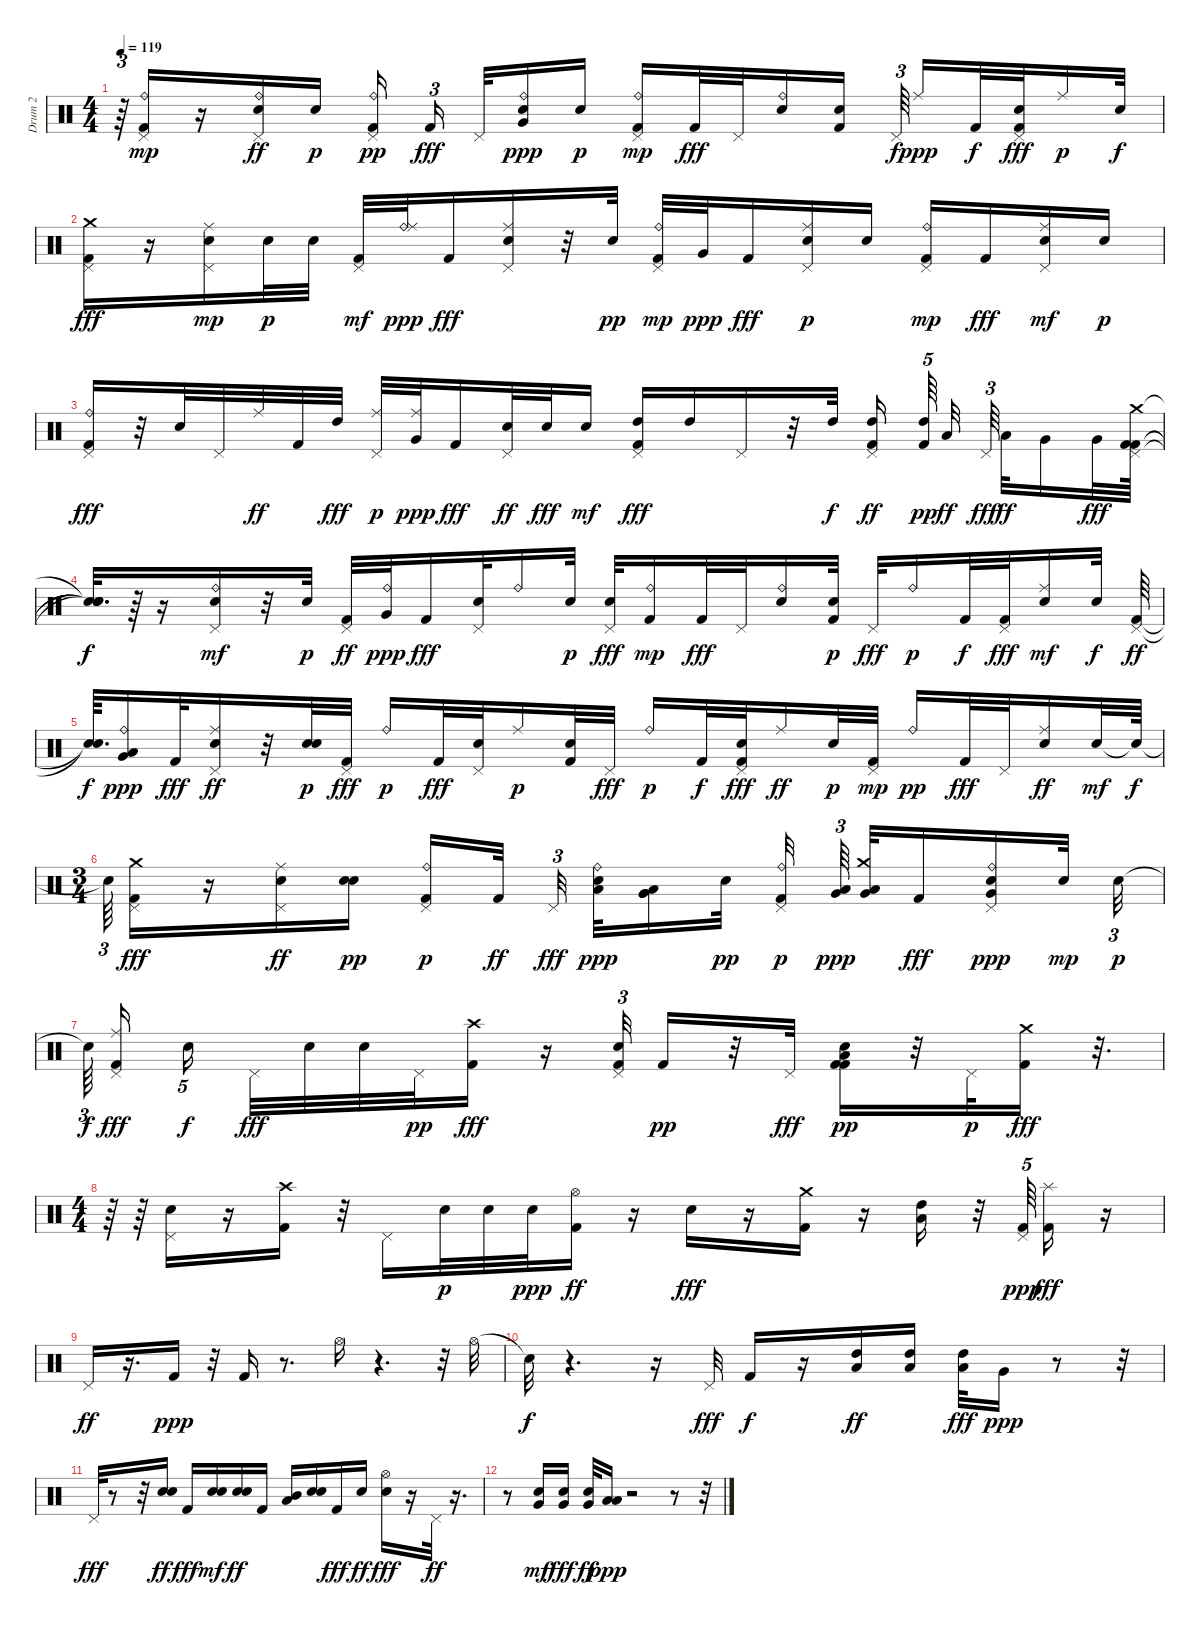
\track ("Drum 2                          " "Drum 2    ") {instrument percussion}
\staff {score}
\articulation defaults
\ts (4 4)
\tempo 119
\clef neutral
\ks c
r.64{tu (3 2) dy f} ("Pedal Hi-Hat (hit)" "Kick (hit) 2" "Ride (bell)").16{dy mp} r.16 ("Pedal Hi-Hat (hit)" "Snare (hit) 2" "Ride (bell)").16{dy ff} "Snare (hit) 2".16{dy p} ("Pedal Hi-Hat (hit)" "Kick (hit) 2" "Ride (bell)").16{dy pp beam splitsecondary} "Kick (hit) 2".16{tu (3 2) dy fff beam splitsecondary} "Pedal Hi-Hat (hit)".32 ("Snare (hit) 2" "Ride (bell)" "Very Low Tom (hit)").16{dy ppp} "Snare (hit) 2".16{dy p} ("Pedal Hi-Hat (hit)" "Kick (hit) 2" "Ride (bell)").16{dy mp} "Kick (hit) 2".32{dy fff} "Pedal Hi-Hat (hit)".32 ("Snare (hit) 2" "Ride (bell)").16 ("Snare (hit) 2" "Kick (hit) 2").16 "Pedal Hi-Hat (hit)".64{tu (3 2) dy f beam splitsecondary} "Ride (middle)".16{dy ppp} "Kick (hit) 2".32{dy f} ("Pedal Hi-Hat (hit)" "Snare (hit) 2" "Kick (hit) 2").32{dy fff} "Ride (middle)".16{dy p} "Snare (hit) 2".32{dy f} |
("Kick (hit) 2" "Crash medium (hit)" "Pedal Hi-Hat (hit)").16{dy fff} r.16 ("Snare (hit) 2" "Pedal Hi-Hat (hit)" "Ride (middle)").16{dy mp} "Snare (hit) 2".32{dy p} "Snare (hit) 2".32 ("Pedal Hi-Hat (hit)" "Kick (hit) 2").32{dy mf} ("Ride (bell)" "Ride (middle)").32{dy ppp} "Kick (hit) 2".16{dy fff} ("Pedal Hi-Hat (hit)" "Ride (middle)" "Snare (hit) 2").16 r.32 "Snare (hit) 2".32{dy pp} ("Pedal Hi-Hat (hit)" "Kick (hit) 2" "Ride (bell)").32{dy mp} "Very Low Tom (hit)".32{dy ppp} "Kick (hit) 2".16{dy fff} ("Pedal Hi-Hat (hit)" "Snare (hit) 2" "Ride (middle)").16{dy p} "Snare (hit) 2".16 ("Pedal Hi-Hat (hit)" "Kick (hit) 2" "Ride (bell)").16{dy mp} "Kick (hit) 2".16{dy fff} ("Pedal Hi-Hat (hit)" "Snare (hit) 2" "Ride (middle)").16{dy mf} "Snare (hit) 2".16{dy p} |
("Pedal Hi-Hat (hit)" "Ride (bell)" "Kick (hit) 2").16{dy fff} r.32 "Snare (hit) 2".32 "Pedal Hi-Hat (hit)".32 "Ride (middle)".32{dy ff} "Kick (hit) 2".32 "High Tom (hit)".32{dy fff} ("Pedal Hi-Hat (hit)" "Ride (middle)").32{dy p} ("Ride (middle)" "Very Low Tom (hit)").32{dy ppp} "Kick (hit) 2".16{dy fff} ("Pedal Hi-Hat (hit)" "Electric Snare (hit)").32{dy ff} "Snare (hit) 2".32{dy fff} "Snare (hit) 2".16{dy mf} ("Pedal Hi-Hat (hit)" "High Tom (hit)" "Kick (hit) 2").16{dy fff} "High Tom (hit)".16 "Pedal Hi-Hat (hit)".16 r.32 "High Tom (hit)".32{dy f} ("Pedal Hi-Hat (hit)" "High Tom (hit)" "Kick (hit) 2").16{dy ff beam splitsecondary} ("High Tom (hit)" "Kick (hit) 2").64{tu (5 4) dy pp beam splitsecondary} "Low Tom (hit)".32{dy ff beam splitsecondary} "Pedal Hi-Hat (hit)".64{tu (3 2) dy fff beam splitsecondary} "Low Tom (hit)".32{dy ff} "Very Low Tom (hit)".16 "Very Low Tom (hit)".32{dy fff} ("Kick (hit) 2" "Crash medium (hit)" "Kick (hit) 2" "Pedal Hi-Hat (hit)").64 |
("Snare (hit)"{t} "Snare (hit)"{t} "Snare (hit)"{t} "Snare (hit)"{t}).32{d dy f} r.64 r.16 ("Pedal Hi-Hat (hit)" "Electric Snare (hit)" "Ride (bell)").16{dy mf} r.32 "Snare (hit) 2".32{dy p} ("Kick (hit) 2" "Pedal Hi-Hat (hit)").32{dy ff} ("Ride (bell)" "Very Low Tom (hit)").32{dy ppp} "Kick (hit) 2".16{dy fff} ("Pedal Hi-Hat (hit)" "Snare (hit) 2").32 "Ride (bell)".16 "Snare (hit) 2".32{dy p} ("Snare (hit) 2" "Pedal Hi-Hat (hit)").32{dy fff} ("Ride (bell)" "Kick (hit) 2").16{dy mp} "Kick (hit) 2".32{dy fff} "Pedal Hi-Hat (hit)".32 ("Electric Snare (hit)" "Ride (bell)").16 ("Kick (hit) 2" "Snare (hit) 2").32{dy p} "Pedal Hi-Hat (hit)".32{dy fff} "Ride (bell)".16{dy p} "Kick (hit) 2".32{dy f} ("Pedal Hi-Hat (hit)" "Kick (hit) 2").32{dy fff} ("Snare (hit) 2" "Ride (middle)").16{dy mf} "Snare (hit) 2".32{dy f} ("Kick (hit) 2" "Pedal Hi-Hat (hit)").64{dy ff} |
("Snare (hit)"{t} "Snare (hit)"{t}).64{d dy f} ("Ride (bell)" "Low Floor Tom (hit)" "Very Low Tom (hit)").16{dy ppp} "Kick (hit) 2".32{dy fff} ("Pedal Hi-Hat (hit)" "Snare (hit) 2" "Ride (middle)").16{dy ff} r.32 ("Snare (hit) 2" "Snare (hit) 2").32{dy p} ("Pedal Hi-Hat (hit)" "Kick (hit) 2").32{dy fff} "Ride (bell)".16{dy p} "Kick (hit) 2".32{dy fff} ("Pedal Hi-Hat (hit)" "Snare (hit) 2").32 "Ride (middle)".16{dy p} ("Kick (hit) 2" "Snare (hit) 2").32 "Pedal Hi-Hat (hit)".32{dy fff} "Ride (bell)".16{dy p} "Kick (hit) 2".32{dy f} ("Pedal Hi-Hat (hit)" "Kick (hit) 2" "Electric Snare (hit)").32{dy fff} "Ride (middle)".16{dy ff} "Snare (hit) 2".32{dy p} ("Pedal Hi-Hat (hit)" "Kick (hit) 2").32{dy mp} "Ride (bell)".16{dy pp} "Kick (hit) 2".32{dy fff} "Pedal Hi-Hat (hit)".32 ("Snare (hit) 2" "Ride (middle)").16{dy ff} "Snare (hit) 2".32{dy mf} "Snare (hit)"{t}.64{dy f} |
\ts (3 4)
"Snare (hit)"{t}.64{tu (3 2)} ("Kick (hit) 2" "Crash medium (hit)" "Pedal Hi-Hat (hit)").16{dy fff} r.16 ("Snare (hit) 2" "Pedal Hi-Hat (hit)" "Ride (middle)").16{dy ff} ("Snare (hit) 2" "Snare (hit) 2").16{dy pp} ("Pedal Hi-Hat (hit)" "Kick (hit) 2" "Ride (bell)").16{dy p} "Kick (hit) 2".32{dy ff beam splitsecondary} "Pedal Hi-Hat (hit)".32{tu (3 2) dy fff beam splitsecondary} ("Snare (hit) 2" "Ride (bell)" "Low Floor Tom (hit)").32{dy ppp} ("Very Low Tom (hit)" "Low Floor Tom (hit)" "Very Low Tom (hit)").16 "Snare (hit) 2".32{dy pp} ("Pedal Hi-Hat (hit)" "Kick (hit) 2" "Ride (bell)").32{dy p beam splitsecondary} ("Low Floor Tom (hit)" "Very Low Tom (hit)").64{tu (3 2) dy ppp beam splitsecondary} ("Low Floor Tom (hit)" "Crash medium (hit)" "Very Low Tom (hit)").32 "Kick (hit) 2".16{dy fff} ("Pedal Hi-Hat (hit)" "Ride (bell)" "Snare (hit) 2" "Very Low Tom (hit)").16{dy ppp} "Snare (hit) 2".32{dy mp} "Snare (hit) 2".32{tu (3 2) dy p} |
"Snare (hit)"{t}.64{tu (3 2) dy f beam splitsecondary} ("Pedal Hi-Hat (hit)" "Kick (hit) 2" "Ride (middle)").16{dy fff beam splitsecondary} "Electric Snare (hit)".16{tu (5 4) dy f beam splitsecondary} "Pedal Hi-Hat (hit)".32{dy fff} "Snare (hit) 2".32 "Snare (hit) 2".32 "Pedal Hi-Hat (hit)".32{dy pp} ("Kick (hit) 2" "Crash high (hit)").16{dy fff} r.16 ("Pedal Hi-Hat (hit)" "Kick (hit) 2" "Snare (hit) 2").32{tu (3 2)} "Kick (hit) 2".16{dy pp} r.32 "Pedal Hi-Hat (hit)".32{dy fff} ("Kick (hit) 2" "Snare (hit) 2" "Low Tom (hit)" "Kick (hit) 2").16{dy pp} r.32 "Pedal Hi-Hat (hit)".32{dy p} ("Crash medium (hit)" "Kick (hit) 2").16{dy fff} r.32{d} |
\ts (4 4)
r.64 r.64 ("Pedal Hi-Hat (hit)" "Electric Snare (hit)").16 r.16 ("Crash high (hit)" "Kick (hit) 2").16 r.32 "Pedal Hi-Hat (hit)".16 "Snare (hit) 2".32{dy p} "Snare (hit) 2".32 "Snare (hit) 2".32{dy ppp} ("Kick (hit) 2" "Hi-Hat (open)").16{dy ff} r.16 "Snare (hit) 2".16{dy fff} r.16 ("Kick (hit) 2" "Crash medium (hit)").16 r.16 ("High Tom (hit)" "Low Tom (hit)").16 r.32 ("Pedal Hi-Hat (hit)" "Kick (hit) 2").64{tu (5 4) dy ppp} ("Kick (hit) 2" "Splash (hit)").16{dy fff} r.16 |
"Pedal Hi-Hat (hit)".16{dy ff} r.16{d} "Kick (hit) 2".16{dy ppp} r.32 "Kick (hit) 2".16 r.8{d} "Hi-Hat (open)".16 r.4{d} r.32 "Hi-Hat (open)".32 |
"Snare (hit)"{t}.32{dy f} r.4{d} r.16 "Pedal Hi-Hat (hit)".32{dy fff} "Kick (hit) 2".16{dy f} r.16 ("High Tom (hit)" "Low Floor Tom (hit)").16{dy ff} ("High Tom (hit)" "Low Floor Tom (hit)").16 ("High Tom (hit)" "Low Floor Tom (hit)").32{dy fff} "Very Low Tom (hit)".16{dy ppp} r.8 r.32 |
"Pedal Hi-Hat (hit)".32{dy fff} r.8 r.32 ("Snare (hit) 2" "Snare (hit) 2").16{dy ff} "Kick (hit) 2".16{dy fff} ("Snare (hit) 2" "Snare (hit) 2").16{dy mf} ("Snare (hit) 2" "Snare (hit) 2").16{dy ff} "Kick (hit) 2".16 ("Mid Tom (hit)" "Low Tom (hit)").16 ("Snare (hit) 2" "Electric Snare (hit)").16 "Kick (hit) 2".16{dy fff} "Snare (hit) 2".16{dy ff} ("Hi-Hat (open)" "Snare (hit) 2").16{dy fff} r.16 "Pedal Hi-Hat (hit)".32{dy ff} r.16{d} |
r.8 ("Electric Snare (hit)" "Very Low Tom (hit)").16{dy mf} ("Very Low Tom (hit)" "Snare (hit) 2").16{dy fff} ("Very Low Tom (hit)" "Snare (hit) 2").32{dy ff} ("Low Floor Tom (hit)" "Low Floor Tom (hit)").16{dy ppp} r.2 r.8 r.32
